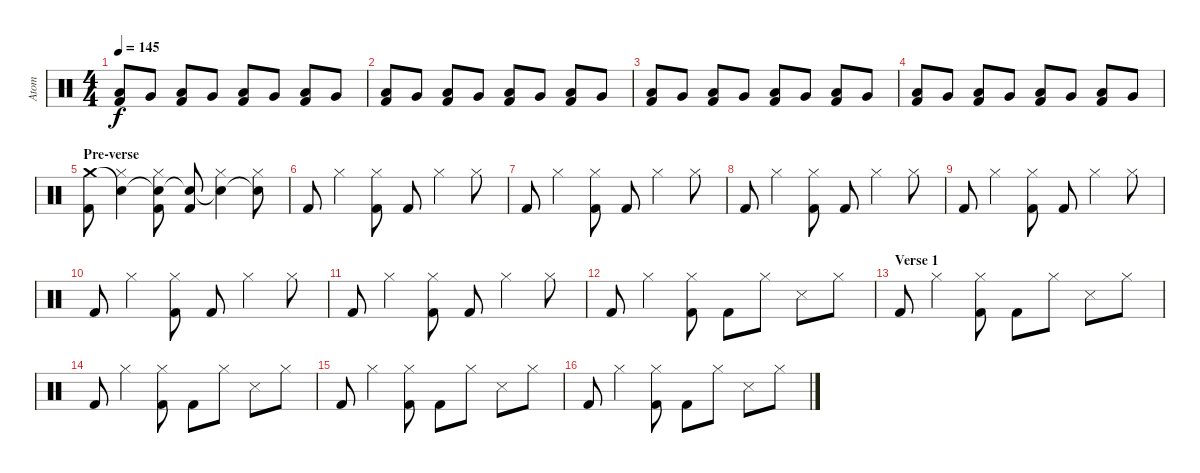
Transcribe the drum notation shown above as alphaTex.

\track ("Atom" "Atom") {instrument percussion}
\staff {score}
\articulation defaults
\ts (4 4)
\tempo 145
\clef neutral
\ks c
("Kick (hit) 2" "Low Tom (hit)").8{dy f} "Very Low Tom (hit)".8 ("Kick (hit) 2" "Low Floor Tom (hit)").8 "Very Low Tom (hit)".8 ("Kick (hit) 2" "Low Tom (hit)").8 "Very Low Tom (hit)".8 ("Kick (hit) 2" "Low Floor Tom (hit)").8 "Very Low Tom (hit)".8 |
("Kick (hit) 2" "Low Tom (hit)").8 "Very Low Tom (hit)".8 ("Kick (hit) 2" "Low Floor Tom (hit)").8 "Very Low Tom (hit)".8 ("Kick (hit) 2" "Low Tom (hit)").8 "Very Low Tom (hit)".8 ("Kick (hit) 2" "Low Floor Tom (hit)").8 "Very Low Tom (hit)".8 |
("Kick (hit) 2" "Low Tom (hit)").8 "Very Low Tom (hit)".8 ("Kick (hit) 2" "Low Floor Tom (hit)").8 "Very Low Tom (hit)".8 ("Kick (hit) 2" "Low Tom (hit)").8 "Very Low Tom (hit)".8 ("Kick (hit) 2" "Low Floor Tom (hit)").8 "Very Low Tom (hit)".8 |
("Kick (hit) 2" "Low Tom (hit)").8 "Very Low Tom (hit)".8 ("Kick (hit) 2" "Low Floor Tom (hit)").8 "Very Low Tom (hit)".8 ("Kick (hit) 2" "Low Tom (hit)").8 "Very Low Tom (hit)".8 ("Kick (hit) 2" "Low Floor Tom (hit)").8 "Very Low Tom (hit)".8 |
\section ("" "Pre-verse")
("Crash medium (hit)" "Kick (hit) 2").8 ("Snare (hit)"{t} "Hi-Hat (closed)").4 ("Snare (hit)"{t} "Hi-Hat (closed)" "Kick (hit) 2").8 ("Snare (hit)"{t} "Kick (hit) 2").8 ("Snare (hit)"{t} "Hi-Hat (closed)").4 ("Snare (hit)"{t} "Hi-Hat (closed)").8 |
"Kick (hit) 2".8 "Hi-Hat (closed)".4 ("Hi-Hat (closed)" "Kick (hit) 2").8 "Kick (hit) 2".8 "Hi-Hat (closed)".4 "Hi-Hat (closed)".8 |
"Kick (hit) 2".8 "Hi-Hat (closed)".4 ("Hi-Hat (closed)" "Kick (hit) 2").8 "Kick (hit) 2".8 "Hi-Hat (closed)".4 "Hi-Hat (closed)".8 |
"Kick (hit) 2".8 "Hi-Hat (closed)".4 ("Hi-Hat (closed)" "Kick (hit) 2").8 "Kick (hit) 2".8 "Hi-Hat (closed)".4 "Hi-Hat (closed)".8 |
"Kick (hit) 2".8 "Hi-Hat (closed)".4 ("Hi-Hat (closed)" "Kick (hit) 2").8 "Kick (hit) 2".8 "Hi-Hat (closed)".4 "Hi-Hat (closed)".8 |
"Kick (hit) 2".8 "Hi-Hat (closed)".4 ("Hi-Hat (closed)" "Kick (hit) 2").8 "Kick (hit) 2".8 "Hi-Hat (closed)".4 "Hi-Hat (closed)".8 |
"Kick (hit) 2".8 "Hi-Hat (closed)".4 ("Hi-Hat (closed)" "Kick (hit) 2").8 "Kick (hit) 2".8 "Hi-Hat (closed)".4 "Hi-Hat (closed)".8 |
"Kick (hit) 2".8 "Hi-Hat (closed)".4 ("Hi-Hat (closed)" "Kick (hit) 2").8 "Kick (hit) 2".8 "Hi-Hat (closed)".8 "Snare (side stick) 3".8 "Hi-Hat (closed)".8 |
\section ("" "Verse 1")
"Kick (hit) 2".8 "Hi-Hat (closed)".4 ("Hi-Hat (closed)" "Kick (hit) 2").8 "Kick (hit) 2".8 "Hi-Hat (closed)".8 "Snare (side stick) 3".8 "Hi-Hat (closed)".8 |
"Kick (hit) 2".8 "Hi-Hat (closed)".4 ("Hi-Hat (closed)" "Kick (hit) 2").8 "Kick (hit) 2".8 "Hi-Hat (closed)".8 "Snare (side stick) 3".8 "Hi-Hat (closed)".8 |
"Kick (hit) 2".8 "Hi-Hat (closed)".4 ("Hi-Hat (closed)" "Kick (hit) 2").8 "Kick (hit) 2".8 "Hi-Hat (closed)".8 "Snare (side stick) 3".8 "Hi-Hat (closed)".8 |
"Kick (hit) 2".8 "Hi-Hat (closed)".4 ("Hi-Hat (closed)" "Kick (hit) 2").8 "Kick (hit) 2".8 "Hi-Hat (closed)".8 "Snare (side stick) 3".8 "Hi-Hat (closed)".8
